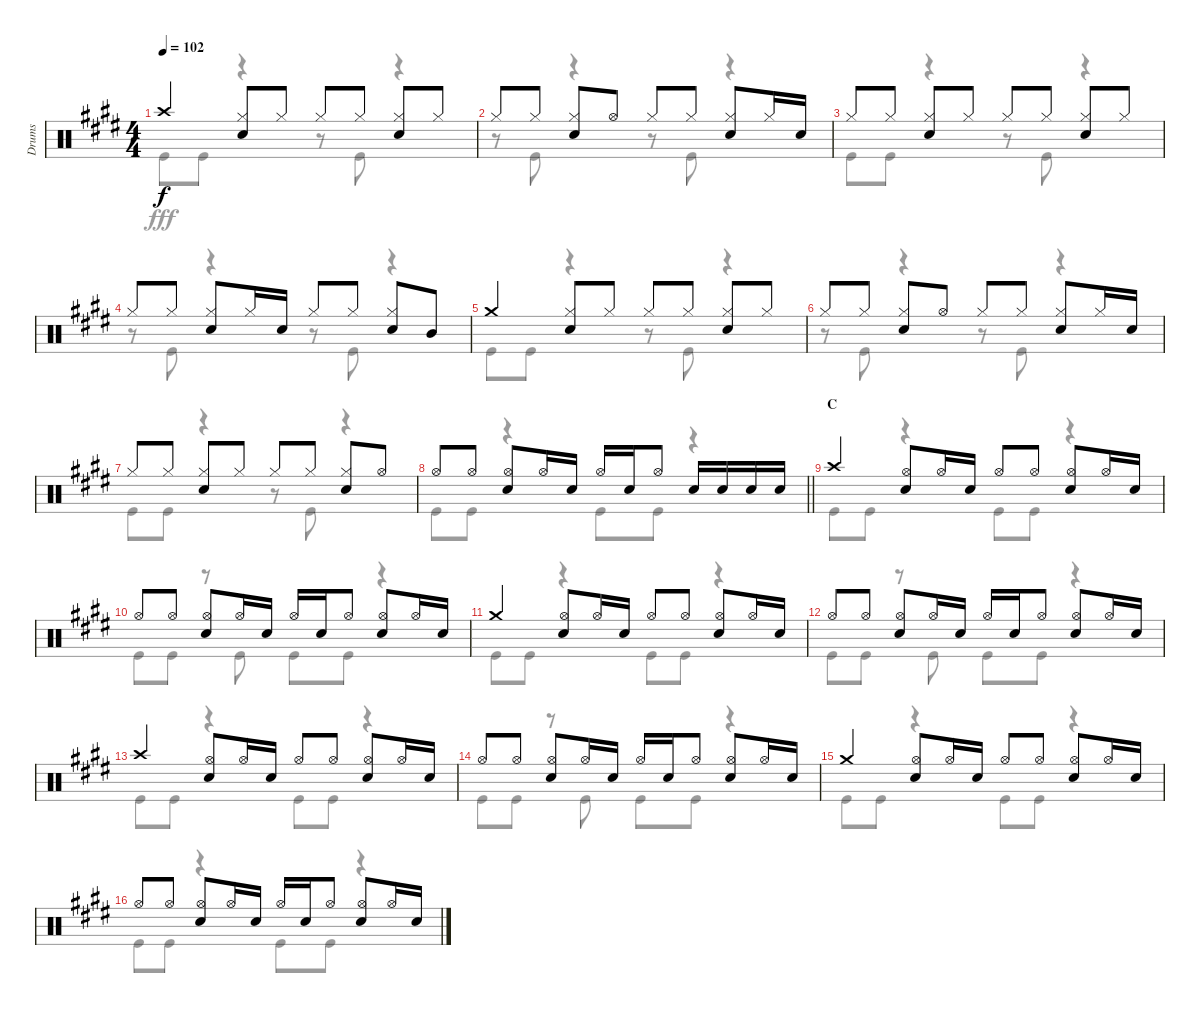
\track ("Drums" "Drums") {instrument percussion}
\staff {score}
\articulation defaults
\voice
\ts (4 4)
\tempo 102
\clef neutral
\ks e "Crash high (hit)".4{dy f}
("Hi-Hat (closed)" "Snare (hit) 2").8 "Hi-Hat (closed)".8 "Hi-Hat (closed)".8 "Hi-Hat (closed)".8 ("Hi-Hat (closed)" "Snare (hit) 2").8 "Hi-Hat (closed)".8 |
"Hi-Hat (closed)".8 "Hi-Hat (closed)".8 ("Hi-Hat (closed)" "Snare (hit) 2").8 "Hi-Hat (open)".8 "Hi-Hat (closed)".8 "Hi-Hat (closed)".8 ("Hi-Hat (closed)" "Snare (hit) 2").8 "Hi-Hat (closed)".16 "Snare (hit) 2".16 |
"Hi-Hat (closed)".8 "Hi-Hat (closed)".8 ("Hi-Hat (closed)" "Snare (hit) 2").8 "Hi-Hat (closed)".8 "Hi-Hat (closed)".8 "Hi-Hat (closed)".8 ("Hi-Hat (closed)" "Snare (hit) 2").8 "Hi-Hat (closed)".8 |
"Hi-Hat (closed)".8 "Hi-Hat (closed)".8 ("Hi-Hat (closed)" "Snare (hit) 2").8 "Hi-Hat (closed)".16 "Snare (hit) 2".16 "Hi-Hat (closed)".8 "Hi-Hat (closed)".8 ("Hi-Hat (closed)" "Snare (hit) 2").8 "Mid Tom (hit)".8 |
"Crash medium (hit)".4 ("Hi-Hat (closed)" "Snare (hit) 2").8 "Hi-Hat (closed)".8 "Hi-Hat (closed)".8 "Hi-Hat (closed)".8 ("Hi-Hat (closed)" "Snare (hit) 2").8 "Hi-Hat (closed)".8 |
"Hi-Hat (closed)".8 "Hi-Hat (closed)".8 ("Hi-Hat (closed)" "Snare (hit) 2").8 "Hi-Hat (open)".8 "Hi-Hat (closed)".8 "Hi-Hat (closed)".8 ("Hi-Hat (closed)" "Snare (hit) 2").8 "Hi-Hat (closed)".16 "Snare (hit) 2".16 |
"Hi-Hat (closed)".8 "Hi-Hat (closed)".8 ("Hi-Hat (closed)" "Snare (hit) 2").8 "Hi-Hat (closed)".8 "Hi-Hat (closed)".8 "Hi-Hat (closed)".8 ("Hi-Hat (closed)" "Snare (hit) 2").8 "Hi-Hat (open)".8 |
\barLineRight lightlight "Hi-Hat (open)".8 "Hi-Hat (open)".8
("Hi-Hat (open)" "Snare (hit) 2").8 "Hi-Hat (open)".16 "Snare (hit) 2".16 "Hi-Hat (open)".16 "Snare (hit) 2".16 "Hi-Hat (open)".8 "Snare (hit) 2".16 "Snare (hit) 2".16 "Snare (hit) 2".16 "Snare (hit) 2".16 |
\section ("" "C")
"Crash high (hit)".4 ("Hi-Hat (open)" "Snare (hit) 2").8 "Hi-Hat (open)".16 "Snare (hit) 2".16 "Hi-Hat (open)".8 "Hi-Hat (open)".8 ("Hi-Hat (open)" "Snare (hit) 2").8 "Hi-Hat (open)".16 "Snare (hit) 2".16 |
"Hi-Hat (open)".8 "Hi-Hat (open)".8 ("Hi-Hat (open)" "Snare (hit) 2").8 "Hi-Hat (open)".16 "Snare (hit) 2".16 "Hi-Hat (open)".16 "Snare (hit) 2".16 "Hi-Hat (open)".8 ("Hi-Hat (open)" "Snare (hit) 2").8 "Hi-Hat (open)".16 "Snare (hit) 2".16 |
"Crash medium (hit)".4 ("Hi-Hat (open)" "Snare (hit) 2").8 "Hi-Hat (open)".16 "Snare (hit) 2".16 "Hi-Hat (open)".8 "Hi-Hat (open)".8 ("Hi-Hat (open)" "Snare (hit) 2").8 "Hi-Hat (open)".16 "Snare (hit) 2".16 |
"Hi-Hat (open)".8 "Hi-Hat (open)".8 ("Hi-Hat (open)" "Snare (hit) 2").8 "Hi-Hat (open)".16 "Snare (hit) 2".16 "Hi-Hat (open)".16 "Snare (hit) 2".16 "Hi-Hat (open)".8 ("Hi-Hat (open)" "Snare (hit) 2").8 "Hi-Hat (open)".16 "Snare (hit) 2".16 |
"Crash high (hit)".4 ("Hi-Hat (open)" "Snare (hit) 2").8 "Hi-Hat (open)".16 "Snare (hit) 2".16 "Hi-Hat (open)".8 "Hi-Hat (open)".8 ("Hi-Hat (open)" "Snare (hit) 2").8 "Hi-Hat (open)".16 "Snare (hit) 2".16 |
"Hi-Hat (open)".8 "Hi-Hat (open)".8 ("Hi-Hat (open)" "Snare (hit) 2").8 "Hi-Hat (open)".16 "Snare (hit) 2".16 "Hi-Hat (open)".16 "Snare (hit) 2".16 "Hi-Hat (open)".8 ("Hi-Hat (open)" "Snare (hit) 2").8 "Hi-Hat (open)".16 "Snare (hit) 2".16 |
"Crash medium (hit)".4 ("Hi-Hat (open)" "Snare (hit) 2").8 "Hi-Hat (open)".16 "Snare (hit) 2".16 "Hi-Hat (open)".8 "Hi-Hat (open)".8 ("Hi-Hat (open)" "Snare (hit) 2").8 "Hi-Hat (open)".16 "Snare (hit) 2".16 |
"Hi-Hat (open)".8 "Hi-Hat (open)".8 ("Hi-Hat (open)" "Snare (hit) 2").8 "Hi-Hat (open)".16 "Snare (hit) 2".16 "Hi-Hat (open)".16 "Snare (hit) 2".16 "Hi-Hat (open)".8 ("Hi-Hat (open)" "Snare (hit) 2").8 "Hi-Hat (open)".16 "Snare (hit) 2".16
\voice
\clef neutral
\ottava regular
\simile none
\ks e "Kick (hit)".8{dy fff} "Kick (hit)".8
r.4 r.8 "Kick (hit)".8 r.4 |
r.8 "Kick (hit)".8 r.4 r.8 "Kick (hit)".8 r.4 |
"Kick (hit)".8 "Kick (hit)".8 r.4 r.8 "Kick (hit)".8 r.4 |
r.8 "Kick (hit)".8 r.4 r.8 "Kick (hit)".8 r.4 |
"Kick (hit)".8 "Kick (hit)".8 r.4 r.8 "Kick (hit)".8 r.4 |
r.8 "Kick (hit)".8 r.4 r.8 "Kick (hit)".8 r.4 |
"Kick (hit)".8 "Kick (hit)".8 r.4 r.8 "Kick (hit)".8 r.4 |
\barLineRight lightlight "Kick (hit)".8 "Kick (hit)".8
r.4 "Kick (hit)".8 "Kick (hit)".8 r.4 |
"Kick (hit)".8 "Kick (hit)".8 r.4 "Kick (hit)".8 "Kick (hit)".8 r.4 |
"Kick (hit)".8 "Kick (hit)".8 r.8 "Kick (hit)".8 "Kick (hit)".8 "Kick (hit)".8 r.4 |
"Kick (hit)".8 "Kick (hit)".8 r.4 "Kick (hit)".8 "Kick (hit)".8 r.4 |
"Kick (hit)".8 "Kick (hit)".8 r.8 "Kick (hit)".8 "Kick (hit)".8 "Kick (hit)".8 r.4 |
"Kick (hit)".8 "Kick (hit)".8 r.4 "Kick (hit)".8 "Kick (hit)".8 r.4 |
"Kick (hit)".8 "Kick (hit)".8 r.8 "Kick (hit)".8 "Kick (hit)".8 "Kick (hit)".8 r.4 |
"Kick (hit)".8 "Kick (hit)".8 r.4 "Kick (hit)".8 "Kick (hit)".8 r.4 |
"Kick (hit)".8 "Kick (hit)".8 r.4 "Kick (hit)".8 "Kick (hit)".8 r.4
